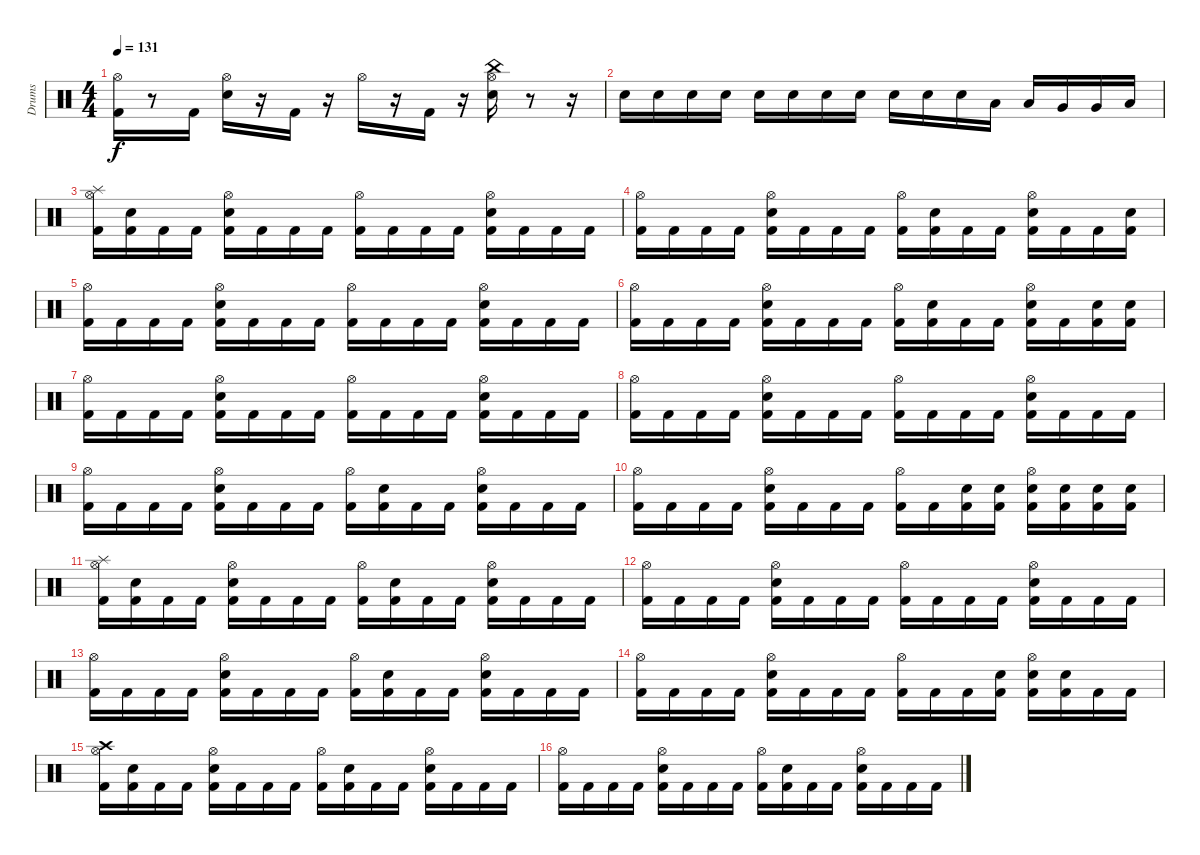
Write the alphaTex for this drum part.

\track ("Drums" "Drums") {instrument percussion}
\staff {score}
\articulation defaults
\ts (4 4)
\tempo 131
\clef neutral
\ks c
("Hi-Hat (open)" "Kick (hit) 2").16{dy f} r.8 "Kick (hit) 2".16 ("Hi-Hat (open)" "Snare (hit) 2").16 r.16 "Kick (hit) 2".16 r.16 "Hi-Hat (open)".16 r.16 "Kick (hit) 2".16 r.16 ("Hi-Hat (open)" "China (hit)" "Snare (hit) 2").16 r.8 r.16 |
"Snare (hit) 2".16 "Snare (hit) 2".16 "Snare (hit) 2".16 "Snare (hit) 2".16 "Snare (hit) 2".16 "Snare (hit) 2".16 "Snare (hit) 2".16 "Snare (hit) 2".16 "Snare (hit) 2".16 "Snare (hit) 2".16 "Snare (hit) 2".16 "Low Tom (hit)".16 "Low Tom (hit)".16 "Very Low Tom (hit)".16 "Very Low Tom (hit)".16 "Low Floor Tom (hit)".16 |
("Hi-Hat (open)" "Splash (hit)" "Kick (hit) 2").16 ("Snare (hit)" "Kick (hit) 2").16 "Kick (hit) 2".16 "Kick (hit) 2".16 ("Hi-Hat (open)" "Kick (hit) 2" "Snare (hit) 2").16 "Kick (hit) 2".16 "Kick (hit) 2".16 "Kick (hit) 2".16 ("Hi-Hat (open)" "Kick (hit) 2").16 "Kick (hit) 2".16 "Kick (hit) 2".16 "Kick (hit) 2".16 ("Hi-Hat (open)" "Kick (hit) 2" "Snare (hit) 2").16 "Kick (hit) 2".16 "Kick (hit) 2".16 "Kick (hit) 2".16 |
("Hi-Hat (open)" "Kick (hit) 2").16 "Kick (hit) 2".16 "Kick (hit) 2".16 "Kick (hit) 2".16 ("Hi-Hat (open)" "Kick (hit) 2" "Snare (hit) 2").16 "Kick (hit) 2".16 "Kick (hit) 2".16 "Kick (hit) 2".16 ("Hi-Hat (open)" "Kick (hit) 2").16 ("Kick (hit) 2" "Snare (hit) 2").16 "Kick (hit) 2".16 "Kick (hit) 2".16 ("Hi-Hat (open)" "Kick (hit) 2" "Snare (hit) 2").16 "Kick (hit) 2".16 "Kick (hit) 2".16 ("Kick (hit) 2" "Snare (hit) 2").16 |
("Hi-Hat (open)" "Kick (hit) 2").16 "Kick (hit) 2".16 "Kick (hit) 2".16 "Kick (hit) 2".16 ("Hi-Hat (open)" "Kick (hit) 2" "Snare (hit) 2").16 "Kick (hit) 2".16 "Kick (hit) 2".16 "Kick (hit) 2".16 ("Hi-Hat (open)" "Kick (hit) 2").16 "Kick (hit) 2".16 "Kick (hit) 2".16 "Kick (hit) 2".16 ("Hi-Hat (open)" "Kick (hit) 2" "Snare (hit) 2").16 "Kick (hit) 2".16 "Kick (hit) 2".16 "Kick (hit) 2".16 |
("Hi-Hat (open)" "Kick (hit) 2").16 "Kick (hit) 2".16 "Kick (hit) 2".16 "Kick (hit) 2".16 ("Hi-Hat (open)" "Kick (hit) 2" "Snare (hit) 2").16 "Kick (hit) 2".16 "Kick (hit) 2".16 "Kick (hit) 2".16 ("Hi-Hat (open)" "Kick (hit) 2").16 ("Kick (hit) 2" "Snare (hit) 2").16 "Kick (hit) 2".16 "Kick (hit) 2".16 ("Hi-Hat (open)" "Kick (hit) 2" "Snare (hit) 2").16 "Kick (hit) 2".16 ("Kick (hit) 2" "Snare (hit) 2").16 ("Kick (hit) 2" "Snare (hit) 2").16 |
("Hi-Hat (open)" "Kick (hit) 2").16 "Kick (hit) 2".16 "Kick (hit) 2".16 "Kick (hit) 2".16 ("Hi-Hat (open)" "Kick (hit) 2" "Snare (hit) 2").16 "Kick (hit) 2".16 "Kick (hit) 2".16 "Kick (hit) 2".16 ("Hi-Hat (open)" "Kick (hit) 2").16 "Kick (hit) 2".16 "Kick (hit) 2".16 "Kick (hit) 2".16 ("Hi-Hat (open)" "Kick (hit) 2" "Snare (hit) 2").16 "Kick (hit) 2".16 "Kick (hit) 2".16 "Kick (hit) 2".16 |
("Hi-Hat (open)" "Kick (hit) 2").16 "Kick (hit) 2".16 "Kick (hit) 2".16 "Kick (hit) 2".16 ("Hi-Hat (open)" "Kick (hit) 2" "Snare (hit) 2").16 "Kick (hit) 2".16 "Kick (hit) 2".16 "Kick (hit) 2".16 ("Hi-Hat (open)" "Kick (hit) 2").16 "Kick (hit) 2".16 "Kick (hit) 2".16 "Kick (hit) 2".16 ("Hi-Hat (open)" "Kick (hit) 2" "Snare (hit) 2").16 "Kick (hit) 2".16 "Kick (hit) 2".16 "Kick (hit) 2".16 |
("Hi-Hat (open)" "Kick (hit) 2").16 "Kick (hit) 2".16 "Kick (hit) 2".16 "Kick (hit) 2".16 ("Hi-Hat (open)" "Kick (hit) 2" "Snare (hit) 2").16 "Kick (hit) 2".16 "Kick (hit) 2".16 "Kick (hit) 2".16 ("Hi-Hat (open)" "Kick (hit) 2").16 ("Kick (hit) 2" "Snare (hit) 2").16 "Kick (hit) 2".16 "Kick (hit) 2".16 ("Hi-Hat (open)" "Kick (hit) 2" "Snare (hit) 2").16 "Kick (hit) 2".16 "Kick (hit) 2".16 "Kick (hit) 2".16 |
("Hi-Hat (open)" "Kick (hit) 2").16 "Kick (hit) 2".16 "Kick (hit) 2".16 "Kick (hit) 2".16 ("Hi-Hat (open)" "Kick (hit) 2" "Snare (hit) 2").16 "Kick (hit) 2".16 "Kick (hit) 2".16 "Kick (hit) 2".16 ("Hi-Hat (open)" "Kick (hit) 2").16 "Kick (hit) 2".16 ("Kick (hit) 2" "Snare (hit) 2").16 ("Kick (hit) 2" "Snare (hit) 2").16 ("Hi-Hat (open)" "Kick (hit) 2" "Snare (hit) 2").16 ("Kick (hit) 2" "Snare (hit) 2").16 ("Kick (hit) 2" "Snare (hit) 2").16 ("Kick (hit) 2" "Snare (hit) 2").16 |
("Hi-Hat (open)" "Splash (hit)" "Kick (hit) 2").16 ("Snare (hit)" "Kick (hit) 2").16 "Kick (hit) 2".16 "Kick (hit) 2".16 ("Hi-Hat (open)" "Kick (hit) 2" "Snare (hit) 2").16 "Kick (hit) 2".16 "Kick (hit) 2".16 "Kick (hit) 2".16 ("Hi-Hat (open)" "Kick (hit) 2").16 ("Kick (hit) 2" "Snare (hit) 2").16 "Kick (hit) 2".16 "Kick (hit) 2".16 ("Hi-Hat (open)" "Kick (hit) 2" "Snare (hit) 2").16 "Kick (hit) 2".16 "Kick (hit) 2".16 "Kick (hit) 2".16 |
("Hi-Hat (open)" "Kick (hit) 2").16 "Kick (hit) 2".16 "Kick (hit) 2".16 "Kick (hit) 2".16 ("Hi-Hat (open)" "Kick (hit) 2" "Snare (hit) 2").16 "Kick (hit) 2".16 "Kick (hit) 2".16 "Kick (hit) 2".16 ("Hi-Hat (open)" "Kick (hit) 2").16 "Kick (hit) 2".16 "Kick (hit) 2".16 "Kick (hit) 2".16 ("Hi-Hat (open)" "Kick (hit) 2" "Snare (hit) 2").16 "Kick (hit) 2".16 "Kick (hit) 2".16 "Kick (hit) 2".16 |
("Hi-Hat (open)" "Kick (hit) 2").16 "Kick (hit) 2".16 "Kick (hit) 2".16 "Kick (hit) 2".16 ("Hi-Hat (open)" "Kick (hit) 2" "Snare (hit) 2").16 "Kick (hit) 2".16 "Kick (hit) 2".16 "Kick (hit) 2".16 ("Hi-Hat (open)" "Kick (hit) 2").16 ("Kick (hit) 2" "Snare (hit) 2").16 "Kick (hit) 2".16 "Kick (hit) 2".16 ("Hi-Hat (open)" "Kick (hit) 2" "Snare (hit) 2").16 "Kick (hit) 2".16 "Kick (hit) 2".16 "Kick (hit) 2".16 |
("Hi-Hat (open)" "Kick (hit) 2").16 "Kick (hit) 2".16 "Kick (hit) 2".16 "Kick (hit) 2".16 ("Hi-Hat (open)" "Kick (hit) 2" "Snare (hit) 2").16 "Kick (hit) 2".16 "Kick (hit) 2".16 "Kick (hit) 2".16 ("Hi-Hat (open)" "Kick (hit) 2").16 "Kick (hit) 2".16 "Kick (hit) 2".16 ("Kick (hit) 2" "Snare (hit) 2").16 ("Hi-Hat (open)" "Kick (hit) 2" "Snare (hit) 2").16 ("Kick (hit) 2" "Snare (hit) 2").16 "Kick (hit) 2".16 "Kick (hit) 2".16 |
("Hi-Hat (open)" "Crash high (hit)" "Kick (hit) 2").16 ("Snare (hit)" "Kick (hit) 2").16 "Kick (hit) 2".16 "Kick (hit) 2".16 ("Hi-Hat (open)" "Kick (hit) 2" "Snare (hit) 2").16 "Kick (hit) 2".16 "Kick (hit) 2".16 "Kick (hit) 2".16 ("Hi-Hat (open)" "Kick (hit) 2").16 ("Kick (hit) 2" "Snare (hit) 2").16 "Kick (hit) 2".16 "Kick (hit) 2".16 ("Hi-Hat (open)" "Kick (hit) 2" "Snare (hit) 2").16 "Kick (hit) 2".16 "Kick (hit) 2".16 "Kick (hit) 2".16 |
("Hi-Hat (open)" "Kick (hit) 2").16 "Kick (hit) 2".16 "Kick (hit) 2".16 "Kick (hit) 2".16 ("Hi-Hat (open)" "Kick (hit) 2" "Snare (hit) 2").16 "Kick (hit) 2".16 "Kick (hit) 2".16 "Kick (hit) 2".16 ("Hi-Hat (open)" "Kick (hit) 2").16 ("Kick (hit) 2" "Snare (hit) 2").16 "Kick (hit) 2".16 "Kick (hit) 2".16 ("Hi-Hat (open)" "Kick (hit) 2" "Snare (hit) 2").16 "Kick (hit) 2".16 "Kick (hit) 2".16 "Kick (hit) 2".16
